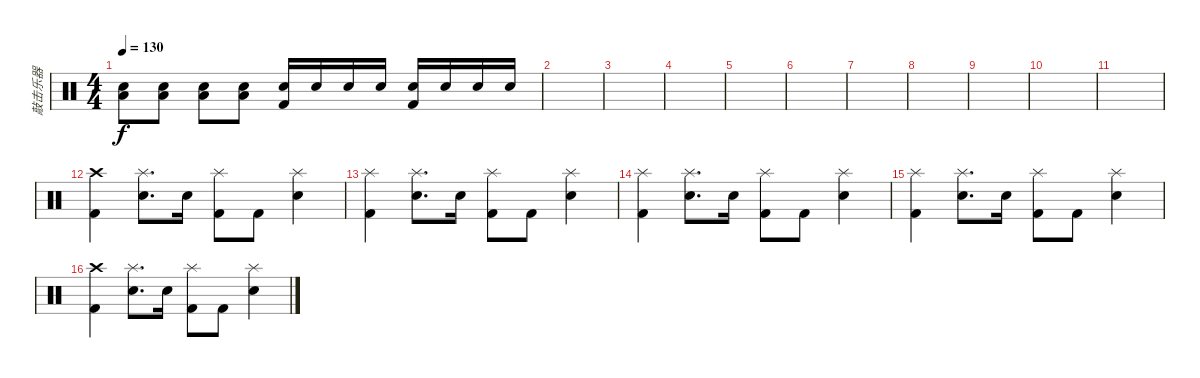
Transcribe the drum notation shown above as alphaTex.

\track ("敲击乐器" "敲击乐器") {instrument percussion}
\staff {score}
\articulation defaults
\ts (4 4)
\tempo 130
\clef neutral
\ks c
("Snare (hit) 2" "Low Floor Tom (hit)").8{dy f} ("Snare (hit) 2" "Low Floor Tom (hit)").8 ("Snare (hit) 2" "Low Floor Tom (hit)").8 ("Snare (hit) 2" "Low Floor Tom (hit)").8 ("Snare (hit) 2" "Kick (hit) 2").16 "Snare (hit) 2".16 "Snare (hit) 2".16 "Snare (hit) 2".16 ("Snare (hit) 2" "Kick (hit) 2").16 "Snare (hit) 2".16 "Snare (hit) 2".16 "Snare (hit) 2".16 |
|
|
|
|
|
|
|
|
|
|
("Crash high (hit)" "Kick (hit) 2").4 ("Splash (hit)" "Snare (hit) 2").8{d} "Snare (hit) 2".16 ("Splash (hit)" "Kick (hit) 2").8 "Kick (hit) 2".8 ("Splash (hit)" "Snare (hit) 2").4 |
("Splash (hit)" "Kick (hit) 2").4 ("Splash (hit)" "Snare (hit) 2").8{d} "Snare (hit) 2".16 ("Splash (hit)" "Kick (hit) 2").8 "Kick (hit) 2".8 ("Splash (hit)" "Snare (hit) 2").4 |
("Splash (hit)" "Kick (hit) 2").4 ("Splash (hit)" "Snare (hit) 2").8{d} "Snare (hit) 2".16 ("Splash (hit)" "Kick (hit) 2").8 "Kick (hit) 2".8 ("Splash (hit)" "Snare (hit) 2").4 |
("Splash (hit)" "Kick (hit) 2").4 ("Splash (hit)" "Snare (hit) 2").8{d} "Snare (hit) 2".16 ("Splash (hit)" "Kick (hit) 2").8 "Kick (hit) 2".8 ("Splash (hit)" "Snare (hit) 2").4 |
("Crash high (hit)" "Kick (hit) 2").4 ("Splash (hit)" "Snare (hit) 2").8{d} "Snare (hit) 2".16 ("Splash (hit)" "Kick (hit) 2").8 "Kick (hit) 2".8 ("Splash (hit)" "Snare (hit) 2").4
